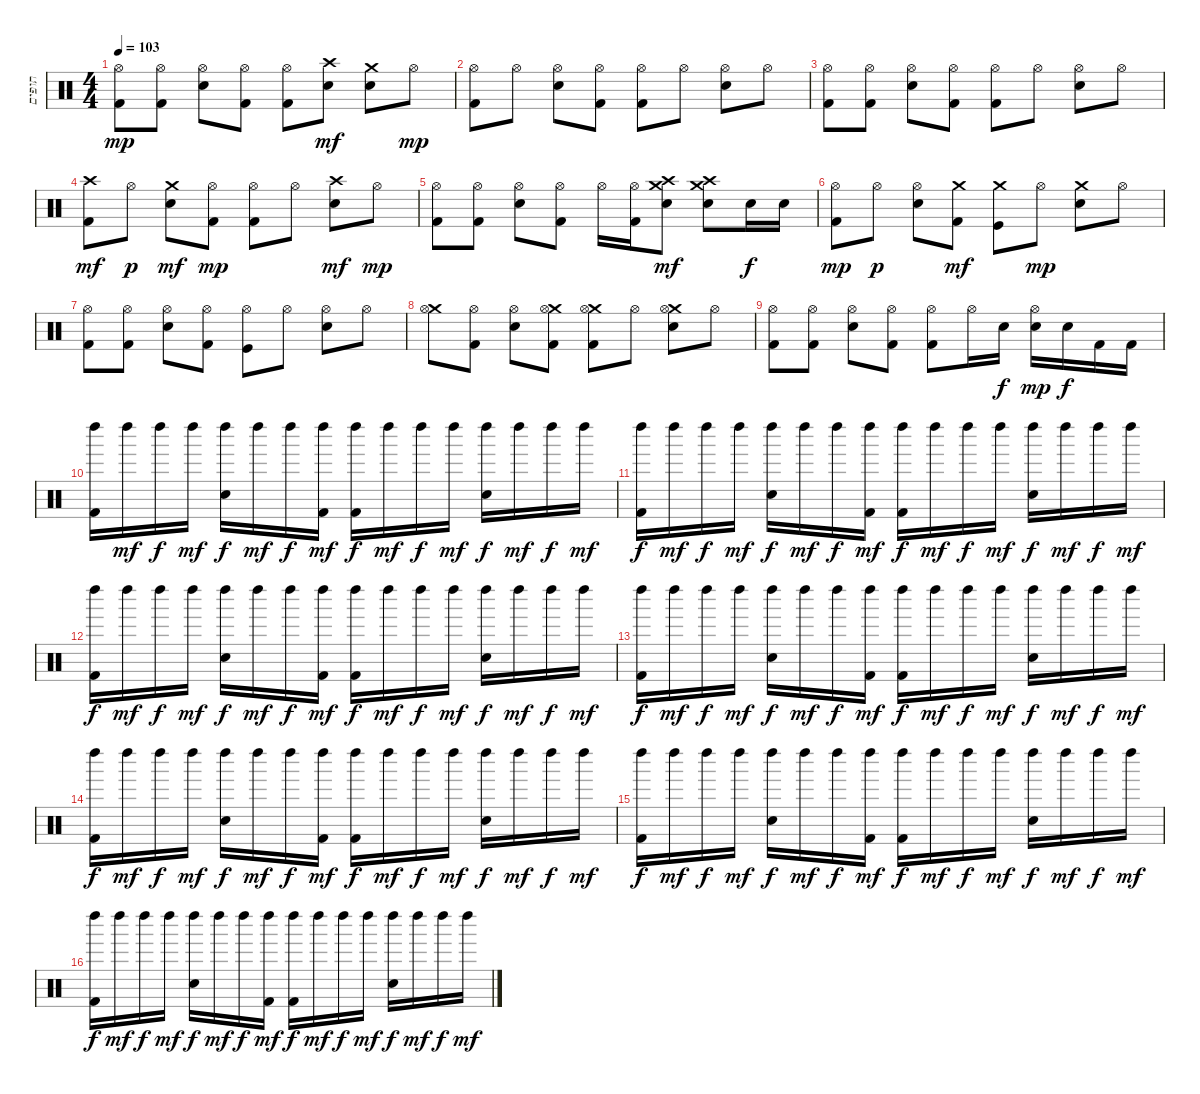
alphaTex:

\track ("תופים" "תופים") {instrument percussion}
\staff {score}
\articulation defaults
\ts (4 4)
\tempo 103
\clef neutral
\ks c
("Kick (hit) 2" "Hi-Hat (open)").8{dy mp} ("Kick (hit) 2" "Hi-Hat (open)").8 ("Electric Snare (hit)" "Hi-Hat (open)").8 ("Kick (hit) 2" "Hi-Hat (open)").8 ("Kick (hit) 2" "Hi-Hat (open)").8 ("Electric Snare (hit)" "Crash high (hit)").8{dy mf} ("Electric Snare (hit)" "Crash medium (hit)").8 "Hi-Hat (open)".8{dy mp} |
("Kick (hit) 2" "Hi-Hat (open)").8 "Hi-Hat (open)".8 ("Electric Snare (hit)" "Hi-Hat (open)").8 ("Kick (hit) 2" "Hi-Hat (open)").8 ("Kick (hit) 2" "Hi-Hat (open)").8 "Hi-Hat (open)".8 ("Electric Snare (hit)" "Hi-Hat (open)").8 "Hi-Hat (open)".8 |
("Kick (hit) 2" "Hi-Hat (open)").8 ("Kick (hit) 2" "Hi-Hat (open)").8 ("Electric Snare (hit)" "Hi-Hat (open)").8 ("Kick (hit) 2" "Hi-Hat (open)").8 ("Kick (hit) 2" "Hi-Hat (open)").8 "Hi-Hat (open)".8 ("Electric Snare (hit)" "Hi-Hat (open)").8 "Hi-Hat (open)".8 |
("Kick (hit) 2" "Crash high (hit)").8{dy mf} "Hi-Hat (open)".8{dy p} ("Electric Snare (hit)" "Crash medium (hit)").8{dy mf} ("Kick (hit) 2" "Hi-Hat (open)").8{dy mp} ("Kick (hit) 2" "Hi-Hat (open)").8 "Hi-Hat (open)".8 ("Electric Snare (hit)" "Crash high (hit)").8{dy mf} "Hi-Hat (open)".8{dy mp} |
("Kick (hit) 2" "Hi-Hat (open)").8 ("Kick (hit) 2" "Hi-Hat (open)").8 ("Electric Snare (hit)" "Hi-Hat (open)").8 ("Kick (hit) 2" "Hi-Hat (open)").8 "Hi-Hat (open)".16 ("Kick (hit) 2" "Hi-Hat (open)").16 ("Electric Snare (hit)" "Crash medium (hit)" "Crash high (hit)").8{dy mf} ("Electric Snare (hit)" "Crash medium (hit)" "Crash high (hit)").8 "Electric Snare (hit)".16{dy f} "Electric Snare (hit)".16 |
("Kick (hit) 2" "Hi-Hat (open)").8{dy mp} "Hi-Hat (open)".8{dy p} ("Electric Snare (hit)" "Hi-Hat (open)").8 ("Kick (hit) 2" "Crash medium (hit)").8{dy mf} ("Kick (hit)" "Crash medium (hit)").8 "Hi-Hat (open)".8{dy mp} ("Electric Snare (hit)" "Crash medium (hit)").8 "Hi-Hat (open)".8 |
("Kick (hit) 2" "Hi-Hat (open)").8 ("Kick (hit) 2" "Hi-Hat (open)").8 ("Electric Snare (hit)" "Hi-Hat (open)").8 ("Kick (hit) 2" "Hi-Hat (open)").8 ("Kick (hit)" "Hi-Hat (open)").8 "Hi-Hat (open)".8 ("Electric Snare (hit)" "Hi-Hat (open)").8 "Hi-Hat (open)".8 |
("Crash medium (hit)" "Hi-Hat (open)").8 ("Kick (hit) 2" "Hi-Hat (open)").8 ("Electric Snare (hit)" "Hi-Hat (open)").8 ("Kick (hit) 2" "Crash medium (hit)" "Hi-Hat (open)").8 ("Kick (hit) 2" "Crash medium (hit)" "Hi-Hat (open)").8 "Hi-Hat (open)".8 ("Electric Snare (hit)" "Crash medium (hit)" "Hi-Hat (open)").8 "Hi-Hat (open)".8 |
("Kick (hit) 2" "Hi-Hat (open)").8 ("Kick (hit) 2" "Hi-Hat (open)").8 ("Electric Snare (hit)" "Hi-Hat (open)").8 ("Kick (hit) 2" "Hi-Hat (open)").8 ("Kick (hit) 2" "Hi-Hat (open)").8 "Hi-Hat (open)".16 "Electric Snare (hit)".16{dy f} ("Electric Snare (hit)" "Hi-Hat (open)").16{dy mp} "Electric Snare (hit)".16{dy f} "Kick (hit) 2".16 "Kick (hit) 2".16 |
("Kick (hit) 2" "Left Maraca (hit)").16 "Left Maraca (hit)".16{dy mf} "Left Maraca (hit)".16{dy f} "Left Maraca (hit)".16{dy mf} ("Electric Snare (hit)" "Left Maraca (hit)").16{dy f} "Left Maraca (hit)".16{dy mf} "Left Maraca (hit)".16{dy f} ("Kick (hit) 2" "Left Maraca (hit)").16{dy mf} ("Kick (hit) 2" "Left Maraca (hit)").16{dy f} "Left Maraca (hit)".16{dy mf} "Left Maraca (hit)".16{dy f} "Left Maraca (hit)".16{dy mf} ("Electric Snare (hit)" "Left Maraca (hit)").16{dy f} "Left Maraca (hit)".16{dy mf} "Left Maraca (hit)".16{dy f} "Left Maraca (hit)".16{dy mf} |
("Kick (hit) 2" "Left Maraca (hit)").16{dy f} "Left Maraca (hit)".16{dy mf} "Left Maraca (hit)".16{dy f} "Left Maraca (hit)".16{dy mf} ("Electric Snare (hit)" "Left Maraca (hit)").16{dy f} "Left Maraca (hit)".16{dy mf} "Left Maraca (hit)".16{dy f} ("Kick (hit) 2" "Left Maraca (hit)").16{dy mf} ("Kick (hit) 2" "Left Maraca (hit)").16{dy f} "Left Maraca (hit)".16{dy mf} "Left Maraca (hit)".16{dy f} "Left Maraca (hit)".16{dy mf} ("Electric Snare (hit)" "Left Maraca (hit)").16{dy f} "Left Maraca (hit)".16{dy mf} "Left Maraca (hit)".16{dy f} "Left Maraca (hit)".16{dy mf} |
("Kick (hit) 2" "Left Maraca (hit)").16{dy f} "Left Maraca (hit)".16{dy mf} "Left Maraca (hit)".16{dy f} "Left Maraca (hit)".16{dy mf} ("Electric Snare (hit)" "Left Maraca (hit)").16{dy f} "Left Maraca (hit)".16{dy mf} "Left Maraca (hit)".16{dy f} ("Kick (hit) 2" "Left Maraca (hit)").16{dy mf} ("Kick (hit) 2" "Left Maraca (hit)").16{dy f} "Left Maraca (hit)".16{dy mf} "Left Maraca (hit)".16{dy f} "Left Maraca (hit)".16{dy mf} ("Electric Snare (hit)" "Left Maraca (hit)").16{dy f} "Left Maraca (hit)".16{dy mf} "Left Maraca (hit)".16{dy f} "Left Maraca (hit)".16{dy mf} |
("Kick (hit) 2" "Left Maraca (hit)").16{dy f} "Left Maraca (hit)".16{dy mf} "Left Maraca (hit)".16{dy f} "Left Maraca (hit)".16{dy mf} ("Electric Snare (hit)" "Left Maraca (hit)").16{dy f} "Left Maraca (hit)".16{dy mf} "Left Maraca (hit)".16{dy f} ("Kick (hit) 2" "Left Maraca (hit)").16{dy mf} ("Kick (hit) 2" "Left Maraca (hit)").16{dy f} "Left Maraca (hit)".16{dy mf} "Left Maraca (hit)".16{dy f} "Left Maraca (hit)".16{dy mf} ("Electric Snare (hit)" "Left Maraca (hit)").16{dy f} "Left Maraca (hit)".16{dy mf} "Left Maraca (hit)".16{dy f} "Left Maraca (hit)".16{dy mf} |
("Kick (hit) 2" "Left Maraca (hit)").16{dy f} "Left Maraca (hit)".16{dy mf} "Left Maraca (hit)".16{dy f} "Left Maraca (hit)".16{dy mf} ("Electric Snare (hit)" "Left Maraca (hit)").16{dy f} "Left Maraca (hit)".16{dy mf} "Left Maraca (hit)".16{dy f} ("Kick (hit) 2" "Left Maraca (hit)").16{dy mf} ("Kick (hit) 2" "Left Maraca (hit)").16{dy f} "Left Maraca (hit)".16{dy mf} "Left Maraca (hit)".16{dy f} "Left Maraca (hit)".16{dy mf} ("Electric Snare (hit)" "Left Maraca (hit)").16{dy f} "Left Maraca (hit)".16{dy mf} "Left Maraca (hit)".16{dy f} "Left Maraca (hit)".16{dy mf} |
("Kick (hit) 2" "Left Maraca (hit)").16{dy f} "Left Maraca (hit)".16{dy mf} "Left Maraca (hit)".16{dy f} "Left Maraca (hit)".16{dy mf} ("Electric Snare (hit)" "Left Maraca (hit)").16{dy f} "Left Maraca (hit)".16{dy mf} "Left Maraca (hit)".16{dy f} ("Kick (hit) 2" "Left Maraca (hit)").16{dy mf} ("Kick (hit) 2" "Left Maraca (hit)").16{dy f} "Left Maraca (hit)".16{dy mf} "Left Maraca (hit)".16{dy f} "Left Maraca (hit)".16{dy mf} ("Electric Snare (hit)" "Left Maraca (hit)").16{dy f} "Left Maraca (hit)".16{dy mf} "Left Maraca (hit)".16{dy f} "Left Maraca (hit)".16{dy mf} |
("Kick (hit) 2" "Left Maraca (hit)").16{dy f} "Left Maraca (hit)".16{dy mf} "Left Maraca (hit)".16{dy f} "Left Maraca (hit)".16{dy mf} ("Electric Snare (hit)" "Left Maraca (hit)").16{dy f} "Left Maraca (hit)".16{dy mf} "Left Maraca (hit)".16{dy f} ("Kick (hit) 2" "Left Maraca (hit)").16{dy mf} ("Kick (hit) 2" "Left Maraca (hit)").16{dy f} "Left Maraca (hit)".16{dy mf} "Left Maraca (hit)".16{dy f} "Left Maraca (hit)".16{dy mf} ("Electric Snare (hit)" "Left Maraca (hit)").16{dy f} "Left Maraca (hit)".16{dy mf} "Left Maraca (hit)".16{dy f} "Left Maraca (hit)".16{dy mf}
